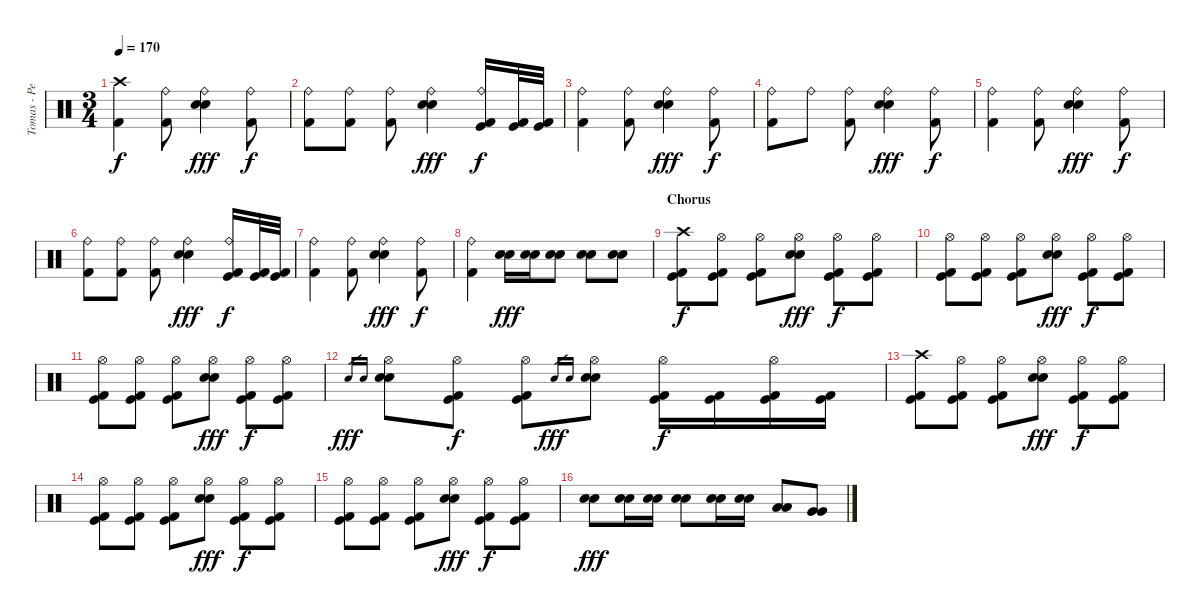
\track ("Tomas - Percussions" "Tomas - Pe") {instrument percussion}
\staff {score}
\articulation defaults
\ts (3 4)
\tempo 170
\clef neutral
\ks c
("Crash high (hit)" "Kick (hit) 2").4{dy f} ("Ride (bell)" "Kick (hit) 2").8 ("Ride (bell)" "Electric Snare (hit)" "Electric Snare (hit)").4{dy fff} ("Ride (bell)" "Kick (hit) 2").8{dy f} |
("Ride (bell)" "Kick (hit) 2").8 ("Ride (bell)" "Kick (hit) 2").8 ("Ride (bell)" "Kick (hit) 2").8 ("Ride (bell)" "Electric Snare (hit)" "Electric Snare (hit)").4{dy fff} ("Ride (bell)" "Kick (hit)" "Kick (hit) 2").16{dy f} ("Kick (hit)" "Kick (hit) 2").32 ("Kick (hit)" "Kick (hit) 2").32 |
("Ride (bell)" "Kick (hit) 2").4 ("Ride (bell)" "Kick (hit) 2").8 ("Ride (bell)" "Electric Snare (hit)" "Electric Snare (hit)").4{dy fff} ("Ride (bell)" "Kick (hit) 2").8{dy f} |
("Ride (bell)" "Kick (hit) 2").8 "Ride (bell)".8 ("Ride (bell)" "Kick (hit) 2").8 ("Ride (bell)" "Electric Snare (hit)" "Electric Snare (hit)").4{dy fff} ("Ride (bell)" "Kick (hit) 2").8{dy f} |
("Ride (bell)" "Kick (hit) 2").4 ("Ride (bell)" "Kick (hit) 2").8 ("Ride (bell)" "Electric Snare (hit)" "Electric Snare (hit)").4{dy fff} ("Ride (bell)" "Kick (hit) 2").8{dy f} |
("Ride (bell)" "Kick (hit) 2").8 ("Ride (bell)" "Kick (hit) 2").8 ("Ride (bell)" "Kick (hit) 2").8 ("Ride (bell)" "Electric Snare (hit)" "Electric Snare (hit)").4{dy fff} ("Ride (bell)" "Kick (hit)" "Kick (hit) 2").16{dy f} ("Kick (hit)" "Kick (hit) 2").32 ("Kick (hit)" "Kick (hit) 2").32 |
("Ride (bell)" "Kick (hit) 2").4 ("Ride (bell)" "Kick (hit) 2").8 ("Ride (bell)" "Electric Snare (hit)" "Electric Snare (hit)").4{dy fff} ("Ride (bell)" "Kick (hit) 2").8{dy f} |
("Ride (bell)" "Kick (hit) 2").4 ("Electric Snare (hit)" "Electric Snare (hit)").16{dy fff} ("Electric Snare (hit)" "Electric Snare (hit)").16 ("Electric Snare (hit)" "Electric Snare (hit)").8 ("Electric Snare (hit)" "Electric Snare (hit)").8 ("Electric Snare (hit)" "Electric Snare (hit)").8 |
\section ("" "Chorus")
("Crash high (hit)" "Kick (hit)" "Kick (hit) 2").8{dy f} ("Hi-Hat (open)" "Kick (hit)" "Kick (hit) 2").8 ("Hi-Hat (open)" "Kick (hit)" "Kick (hit) 2").8 ("Hi-Hat (open)" "Electric Snare (hit)" "Electric Snare (hit)").8{dy fff} ("Hi-Hat (open)" "Kick (hit)" "Kick (hit) 2").8{dy f} ("Hi-Hat (open)" "Kick (hit)" "Kick (hit) 2").8 |
("Hi-Hat (open)" "Kick (hit)" "Kick (hit) 2").8 ("Hi-Hat (open)" "Kick (hit)" "Kick (hit) 2").8 ("Hi-Hat (open)" "Kick (hit)" "Kick (hit) 2").8 ("Hi-Hat (open)" "Electric Snare (hit)" "Electric Snare (hit)").8{dy fff} ("Hi-Hat (open)" "Kick (hit)" "Kick (hit) 2").8{dy f} ("Hi-Hat (open)" "Kick (hit)" "Kick (hit) 2").8 |
("Hi-Hat (open)" "Kick (hit)" "Kick (hit) 2").8 ("Hi-Hat (open)" "Kick (hit)" "Kick (hit) 2").8 ("Hi-Hat (open)" "Kick (hit)" "Kick (hit) 2").8 ("Hi-Hat (open)" "Electric Snare (hit)" "Electric Snare (hit)").8{dy fff} ("Hi-Hat (open)" "Kick (hit)" "Kick (hit) 2").8{dy f} ("Hi-Hat (open)" "Kick (hit)" "Kick (hit) 2").8 |
"Electric Snare (hit)".16{gr dy fff} "Electric Snare (hit)".16{gr} ("Hi-Hat (open)" "Electric Snare (hit)" "Electric Snare (hit)").8 ("Hi-Hat (open)" "Kick (hit)" "Kick (hit) 2").8{dy f} ("Hi-Hat (open)" "Kick (hit)" "Kick (hit) 2").8 "Electric Snare (hit)".16{gr dy fff} "Electric Snare (hit)".16{gr} ("Hi-Hat (open)" "Electric Snare (hit)" "Electric Snare (hit)").8 ("Hi-Hat (open)" "Kick (hit)" "Kick (hit) 2").16{dy f} ("Kick (hit)" "Kick (hit) 2").16 ("Hi-Hat (open)" "Kick (hit)" "Kick (hit) 2").16 ("Kick (hit)" "Kick (hit) 2").16 |
("Crash high (hit)" "Kick (hit)" "Kick (hit) 2").8 ("Hi-Hat (open)" "Kick (hit)" "Kick (hit) 2").8 ("Hi-Hat (open)" "Kick (hit)" "Kick (hit) 2").8 ("Hi-Hat (open)" "Electric Snare (hit)" "Electric Snare (hit)").8{dy fff} ("Hi-Hat (open)" "Kick (hit)" "Kick (hit) 2").8{dy f} ("Hi-Hat (open)" "Kick (hit)" "Kick (hit) 2").8 |
("Hi-Hat (open)" "Kick (hit)" "Kick (hit) 2").8 ("Hi-Hat (open)" "Kick (hit)" "Kick (hit) 2").8 ("Hi-Hat (open)" "Kick (hit)" "Kick (hit) 2").8 ("Hi-Hat (open)" "Electric Snare (hit)" "Electric Snare (hit)").8{dy fff} ("Hi-Hat (open)" "Kick (hit)" "Kick (hit) 2").8{dy f} ("Hi-Hat (open)" "Kick (hit)" "Kick (hit) 2").8 |
("Hi-Hat (open)" "Kick (hit)" "Kick (hit) 2").8 ("Hi-Hat (open)" "Kick (hit)" "Kick (hit) 2").8 ("Hi-Hat (open)" "Kick (hit)" "Kick (hit) 2").8 ("Hi-Hat (open)" "Electric Snare (hit)" "Electric Snare (hit)").8{dy fff} ("Hi-Hat (open)" "Kick (hit)" "Kick (hit) 2").8{dy f} ("Hi-Hat (open)" "Kick (hit)" "Kick (hit) 2").8 |
("Electric Snare (hit)" "Electric Snare (hit)").8{dy fff} ("Electric Snare (hit)" "Electric Snare (hit)").16 ("Electric Snare (hit)" "Electric Snare (hit)").16 ("Electric Snare (hit)" "Electric Snare (hit)").8 ("Electric Snare (hit)" "Electric Snare (hit)").16 ("Electric Snare (hit)" "Electric Snare (hit)").16 ("Low Tom (hit)" "Low Tom (hit)").8 ("Very Low Tom (hit)" "Very Low Tom (hit)").8
